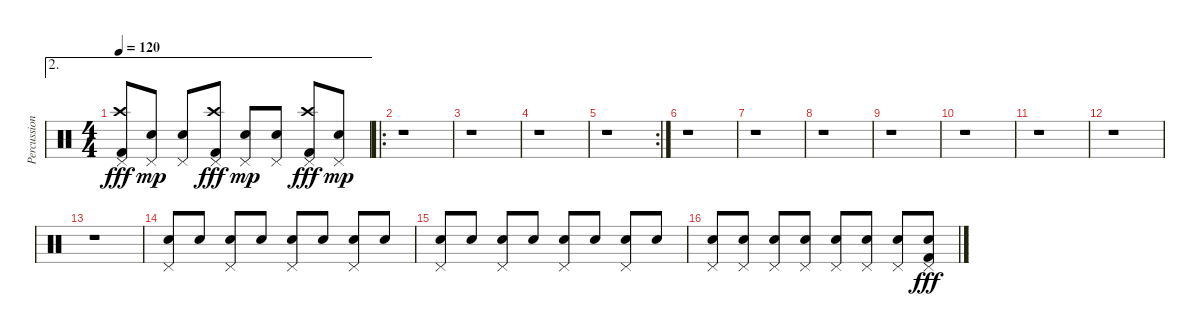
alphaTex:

\track ("Percussion" "Percussion") {instrument percussion}
\staff {score}
\articulation defaults
\ae 2
\ts (4 4)
\tempo 120
\clef neutral
\ks c
("Pedal Hi-Hat (hit)" "Crash high (hit)" "Kick (hit) 2").8{dy fff} ("Pedal Hi-Hat (hit)" "Electric Snare (hit)").8{dy mp} ("Pedal Hi-Hat (hit)" "Electric Snare (hit)").8 ("Pedal Hi-Hat (hit)" "Crash high (hit)" "Kick (hit) 2").8{dy fff} ("Pedal Hi-Hat (hit)" "Electric Snare (hit)").8{dy mp} ("Pedal Hi-Hat (hit)" "Electric Snare (hit)").8 ("Pedal Hi-Hat (hit)" "Crash high (hit)" "Kick (hit) 2").8{dy fff} ("Pedal Hi-Hat (hit)" "Electric Snare (hit)").8{dy mp} |
\ro
r.1 |
r.1 |
r.1 |
\rc 2
r.1 |
r.1 |
r.1 |
r.1 |
r.1 |
r.1 |
r.1 |
r.1 |
r.1 |
("Pedal Hi-Hat (hit)" "Electric Snare (hit)").8 "Electric Snare (hit)".8 ("Pedal Hi-Hat (hit)" "Electric Snare (hit)").8 "Electric Snare (hit)".8 ("Pedal Hi-Hat (hit)" "Electric Snare (hit)").8 "Electric Snare (hit)".8 ("Pedal Hi-Hat (hit)" "Electric Snare (hit)").8 "Electric Snare (hit)".8 |
("Pedal Hi-Hat (hit)" "Electric Snare (hit)").8 "Electric Snare (hit)".8 ("Pedal Hi-Hat (hit)" "Electric Snare (hit)").8 "Electric Snare (hit)".8 ("Pedal Hi-Hat (hit)" "Electric Snare (hit)").8 "Electric Snare (hit)".8 ("Pedal Hi-Hat (hit)" "Electric Snare (hit)").8 "Electric Snare (hit)".8 |
("Pedal Hi-Hat (hit)" "Electric Snare (hit)").8 ("Pedal Hi-Hat (hit)" "Electric Snare (hit)").8 ("Pedal Hi-Hat (hit)" "Electric Snare (hit)").8 ("Pedal Hi-Hat (hit)" "Electric Snare (hit)").8 ("Pedal Hi-Hat (hit)" "Electric Snare (hit)").8 ("Pedal Hi-Hat (hit)" "Electric Snare (hit)").8 ("Pedal Hi-Hat (hit)" "Electric Snare (hit)").8 ("Pedal Hi-Hat (hit)" "Electric Snare (hit)" "Kick (hit) 2").8{dy fff}
